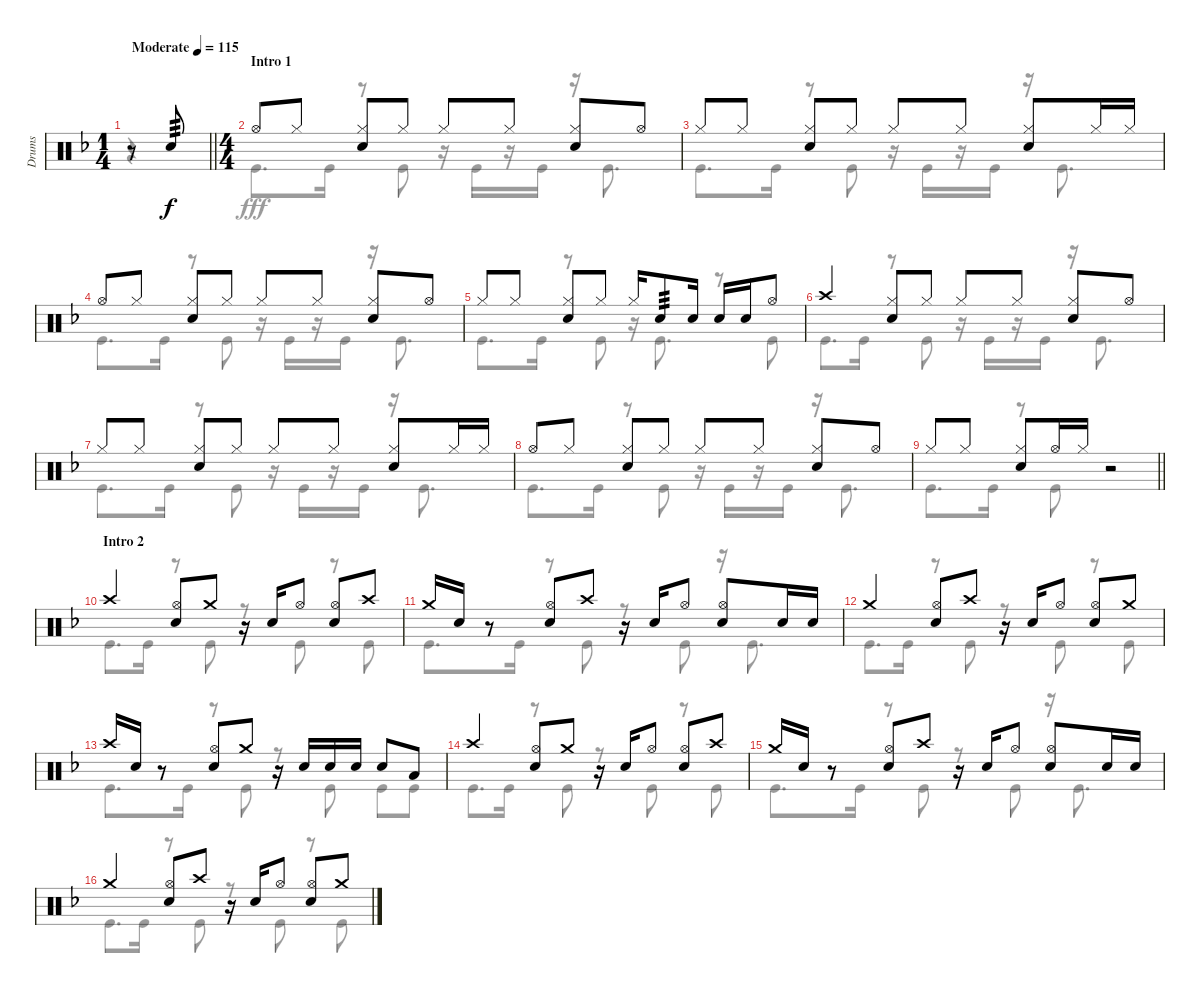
\track ("Drums" "Drums") {instrument percussion}
\staff {score}
\articulation defaults
\voice
\ts (1 4)
\tempo (115 "Moderate")
\clef neutral
\barLineRight lightlight
\ks f
r.8{dy f} "Snare (hit) 2".8{tp 3} |
\ts (4 4)
\section ("" "Intro 1")
"Hi-Hat (open)".8 "Hi-Hat (closed)".8 ("Hi-Hat (closed)" "Snare (hit) 2").8 "Hi-Hat (closed)".8 "Hi-Hat (closed)".8 "Hi-Hat (closed)".8 ("Hi-Hat (closed)" "Snare (hit) 2").8 "Hi-Hat (open)".8 |
"Hi-Hat (closed)".8 "Hi-Hat (closed)".8 ("Hi-Hat (closed)" "Snare (hit) 2").8 "Hi-Hat (closed)".8 "Hi-Hat (closed)".8 "Hi-Hat (closed)".8 ("Hi-Hat (closed)" "Snare (hit) 2").8 "Hi-Hat (closed)".16 "Hi-Hat (closed)".16 |
"Hi-Hat (open)".8 "Hi-Hat (closed)".8 ("Hi-Hat (closed)" "Snare (hit) 2").8 "Hi-Hat (closed)".8 "Hi-Hat (closed)".8 "Hi-Hat (closed)".8 ("Hi-Hat (closed)" "Snare (hit) 2").8 "Hi-Hat (open)".8 |
"Hi-Hat (closed)".8 "Hi-Hat (closed)".8 ("Hi-Hat (closed)" "Snare (hit) 2").8 "Hi-Hat (closed)".8 "Hi-Hat (closed)".16 "Snare (hit) 2".8{tp 3} "Snare (hit) 2".16 "Snare (hit) 2".16 "Snare (hit) 2".16 "Hi-Hat (open)".8 |
"Crash high (hit)".4 ("Hi-Hat (closed)" "Snare (hit) 2").8 "Hi-Hat (closed)".8 "Hi-Hat (closed)".8 "Hi-Hat (closed)".8 ("Hi-Hat (closed)" "Snare (hit) 2").8 "Hi-Hat (open)".8 |
"Hi-Hat (closed)".8 "Hi-Hat (closed)".8 ("Hi-Hat (closed)" "Snare (hit) 2").8 "Hi-Hat (closed)".8 "Hi-Hat (closed)".8 "Hi-Hat (closed)".8 ("Hi-Hat (closed)" "Snare (hit) 2").8 "Hi-Hat (closed)".16 "Hi-Hat (closed)".16 |
"Hi-Hat (open)".8 "Hi-Hat (closed)".8 ("Hi-Hat (closed)" "Snare (hit) 2").8 "Hi-Hat (closed)".8 "Hi-Hat (closed)".8 "Hi-Hat (closed)".8 ("Hi-Hat (closed)" "Snare (hit) 2").8 "Hi-Hat (open)".8 |
\barLineRight lightlight "Hi-Hat (closed)".8 "Hi-Hat (closed)".8
("Hi-Hat (closed)" "Snare (hit) 2").8 "Hi-Hat (open)".16 "Hi-Hat (closed)".16 r.2 |
\section ("" "Intro 2")
"Crash high (hit)".4 ("Hi-Hat (open)" "Snare (hit) 2").8 "Crash medium (hit)".8 r.16 "Snare (hit) 2".16 "Hi-Hat (open)".8 ("Hi-Hat (open)" "Snare (hit) 2").8 "Crash high (hit)".8 |
"Crash medium (hit)".16 "Snare (hit) 2".16 r.8 ("Hi-Hat (open)" "Snare (hit) 2").8 "Crash high (hit)".8 r.16 "Snare (hit) 2".16 "Hi-Hat (open)".8 ("Hi-Hat (open)" "Snare (hit) 2").8 "Snare (hit) 2".16 "Snare (hit) 2".16 |
"Crash medium (hit)".4 ("Hi-Hat (open)" "Snare (hit) 2").8 "Crash high (hit)".8 r.16 "Snare (hit) 2".16 "Hi-Hat (open)".8 ("Hi-Hat (open)" "Snare (hit) 2").8 "Crash medium (hit)".8 |
"Crash high (hit)".16 "Snare (hit) 2".16 r.8 ("Hi-Hat (open)" "Snare (hit) 2").8 "Crash medium (hit)".8 r.16 "Snare (hit) 2".16 "Snare (hit) 2".16 "Snare (hit) 2".16 "Snare (hit) 2".8 "Low Tom (hit)".8 |
"Crash high (hit)".4 ("Hi-Hat (open)" "Snare (hit) 2").8 "Crash medium (hit)".8 r.16 "Snare (hit) 2".16 "Hi-Hat (open)".8 ("Hi-Hat (open)" "Snare (hit) 2").8 "Crash high (hit)".8 |
"Crash medium (hit)".16 "Snare (hit) 2".16 r.8 ("Hi-Hat (open)" "Snare (hit) 2").8 "Crash high (hit)".8 r.16 "Snare (hit) 2".16 "Hi-Hat (open)".8 ("Hi-Hat (open)" "Snare (hit) 2").8 "Snare (hit) 2".16 "Snare (hit) 2".16 |
"Crash medium (hit)".4 ("Hi-Hat (open)" "Snare (hit) 2").8 "Crash high (hit)".8 r.16 "Snare (hit) 2".16 "Hi-Hat (open)".8 ("Hi-Hat (open)" "Snare (hit) 2").8 "Crash medium (hit)".8
\voice
\clef neutral
\ottava regular
\simile none
\barLineRight lightlight
\ks f
r.4{dy fff} |
"Kick (hit)".8{d} "Kick (hit)".16 r.8 "Kick (hit)".8 r.16 "Kick (hit)".16 r.16 "Kick (hit)".16 r.16 "Kick (hit)".8{d} |
"Kick (hit)".8{d} "Kick (hit)".16 r.8 "Kick (hit)".8 r.16 "Kick (hit)".16 r.16 "Kick (hit)".16 r.16 "Kick (hit)".8{d} |
"Kick (hit)".8{d} "Kick (hit)".16 r.8 "Kick (hit)".8 r.16 "Kick (hit)".16 r.16 "Kick (hit)".16 r.16 "Kick (hit)".8{d} |
"Kick (hit)".8{d} "Kick (hit)".16 r.8 "Kick (hit)".8 r.16 "Kick (hit)".8{d} r.8 "Kick (hit)".8 |
"Kick (hit)".8{d} "Kick (hit)".16 r.8 "Kick (hit)".8 r.16 "Kick (hit)".16 r.16 "Kick (hit)".16 r.16 "Kick (hit)".8{d} |
"Kick (hit)".8{d} "Kick (hit)".16 r.8 "Kick (hit)".8 r.16 "Kick (hit)".16 r.16 "Kick (hit)".16 r.16 "Kick (hit)".8{d} |
"Kick (hit)".8{d} "Kick (hit)".16 r.8 "Kick (hit)".8 r.16 "Kick (hit)".16 r.16 "Kick (hit)".16 r.16 "Kick (hit)".8{d} |
\barLineRight lightlight "Kick (hit)".8{d} "Kick (hit)".16
r.8 "Kick (hit)".8 r.2 |
"Kick (hit)".8{d} "Kick (hit)".16 r.8 "Kick (hit)".8 r.8 "Kick (hit)".8 r.8 "Kick (hit)".8 |
"Kick (hit)".8{d} "Kick (hit)".16 r.8 "Kick (hit)".8 r.8 "Kick (hit)".8 r.16 "Kick (hit)".8{d} |
"Kick (hit)".8{d} "Kick (hit)".16 r.8 "Kick (hit)".8 r.8 "Kick (hit)".8 r.8 "Kick (hit)".8 |
"Kick (hit)".8{d} "Kick (hit)".16 r.8 "Kick (hit)".8 r.8 "Kick (hit)".8 "Kick (hit)".8 "Kick (hit)".8 |
"Kick (hit)".8{d} "Kick (hit)".16 r.8 "Kick (hit)".8 r.8 "Kick (hit)".8 r.8 "Kick (hit)".8 |
"Kick (hit)".8{d} "Kick (hit)".16 r.8 "Kick (hit)".8 r.8 "Kick (hit)".8 r.16 "Kick (hit)".8{d} |
"Kick (hit)".8{d} "Kick (hit)".16 r.8 "Kick (hit)".8 r.8 "Kick (hit)".8 r.8 "Kick (hit)".8
